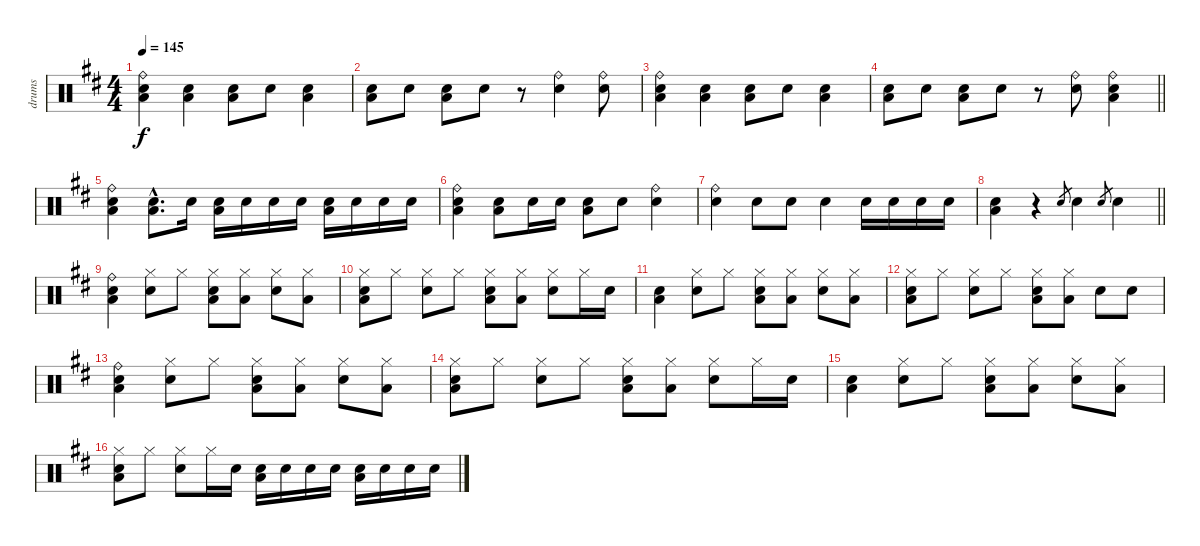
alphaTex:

\track ("drums" "drums") {instrument percussion}
\staff {score}
\articulation defaults
\ts (4 4)
\tempo 145
\clef neutral
\ks d
("Ride (bell)" "Electric Snare (hit)" "Low Floor Tom (hit)").4{dy f} ("Electric Snare (hit)" "Low Floor Tom (hit)").4 ("Electric Snare (hit)" "Low Floor Tom (hit)").8 "Electric Snare (hit)".8 ("Electric Snare (hit)" "Low Floor Tom (hit)").4 |
("Electric Snare (hit)" "Low Floor Tom (hit)").8 "Electric Snare (hit)".8 ("Electric Snare (hit)" "Low Floor Tom (hit)").8 "Electric Snare (hit)".8 r.8 ("Ride (bell)" "Electric Snare (hit)").4 ("Ride (bell)" "Electric Snare (hit)").8 |
("Ride (bell)" "Electric Snare (hit)" "Low Floor Tom (hit)").4 ("Electric Snare (hit)" "Low Floor Tom (hit)").4 ("Electric Snare (hit)" "Low Floor Tom (hit)").8 "Electric Snare (hit)".8 ("Electric Snare (hit)" "Low Floor Tom (hit)").4 |
\barLineRight lightlight
("Electric Snare (hit)" "Low Floor Tom (hit)").8 "Electric Snare (hit)".8 ("Electric Snare (hit)" "Low Floor Tom (hit)").8 "Electric Snare (hit)".8 r.8 ("Ride (bell)" "Electric Snare (hit)").8 ("Ride (bell)" "Electric Snare (hit)" "Low Floor Tom (hit)").4 |
("Ride (bell)" "Electric Snare (hit)" "Low Floor Tom (hit)").4 ("Electric Snare (hit)"{hac} "Low Floor Tom (hit)"{hac}).8{d} "Electric Snare (hit)".16 ("Electric Snare (hit)" "Low Floor Tom (hit)").16 "Electric Snare (hit)".16 "Electric Snare (hit)".16 "Electric Snare (hit)".16 ("Electric Snare (hit)" "Low Floor Tom (hit)").16 "Electric Snare (hit)".16 "Electric Snare (hit)".16 "Electric Snare (hit)".16 |
("Ride (bell)" "Electric Snare (hit)" "Low Floor Tom (hit)").4 ("Electric Snare (hit)" "Low Floor Tom (hit)").8 "Electric Snare (hit)".16 "Electric Snare (hit)".16 ("Electric Snare (hit)" "Low Floor Tom (hit)").8 "Electric Snare (hit)".8 ("Ride (bell)" "Electric Snare (hit)").4 |
("Ride (bell)" "Electric Snare (hit)").4 "Electric Snare (hit)".8 "Electric Snare (hit)".8 "Electric Snare (hit)".4 "Electric Snare (hit)".16 "Electric Snare (hit)".16 "Electric Snare (hit)".16 "Electric Snare (hit)".16 |
\barLineRight lightlight
("Electric Snare (hit)" "Low Floor Tom (hit)").4 r.4 "Electric Snare (hit)".8{gr} "Electric Snare (hit)".4 "Electric Snare (hit)".8{gr} "Electric Snare (hit)".4 |
("Ride (bell)" "Electric Snare (hit)" "Low Floor Tom (hit)").4 ("Hi-Hat (closed)" "Electric Snare (hit)").8 "Hi-Hat (closed)".8 ("Hi-Hat (closed)" "Electric Snare (hit)" "Low Floor Tom (hit)").8 ("Hi-Hat (closed)" "Low Floor Tom (hit)").8 ("Hi-Hat (closed)" "Electric Snare (hit)").8 ("Hi-Hat (closed)" "Low Floor Tom (hit)").8 |
("Hi-Hat (closed)" "Electric Snare (hit)" "Low Floor Tom (hit)").8 "Hi-Hat (closed)".8 ("Hi-Hat (closed)" "Electric Snare (hit)").8 "Hi-Hat (closed)".8 ("Hi-Hat (closed)" "Electric Snare (hit)" "Low Floor Tom (hit)").8 ("Hi-Hat (closed)" "Low Floor Tom (hit)").8 ("Hi-Hat (closed)" "Electric Snare (hit)").8 "Hi-Hat (closed)".16 "Electric Snare (hit)".16 |
("Electric Snare (hit)" "Low Floor Tom (hit)").4 ("Hi-Hat (closed)" "Electric Snare (hit)").8 "Hi-Hat (closed)".8 ("Hi-Hat (closed)" "Low Floor Tom (hit)" "Electric Snare (hit)").8 ("Hi-Hat (closed)" "Low Floor Tom (hit)").8 ("Hi-Hat (closed)" "Electric Snare (hit)").8 ("Hi-Hat (closed)" "Low Floor Tom (hit)").8 |
("Hi-Hat (closed)" "Electric Snare (hit)" "Low Floor Tom (hit)").8 "Hi-Hat (closed)".8 ("Hi-Hat (closed)" "Electric Snare (hit)").8 "Hi-Hat (closed)".8 ("Hi-Hat (closed)" "Electric Snare (hit)" "Low Floor Tom (hit)").8 ("Hi-Hat (closed)" "Low Floor Tom (hit)").8 "Electric Snare (hit)".8 "Electric Snare (hit)".8 |
("Ride (bell)" "Electric Snare (hit)" "Low Floor Tom (hit)").4 ("Hi-Hat (closed)" "Electric Snare (hit)").8 "Hi-Hat (closed)".8 ("Hi-Hat (closed)" "Electric Snare (hit)" "Low Floor Tom (hit)").8 ("Hi-Hat (closed)" "Low Floor Tom (hit)").8 ("Hi-Hat (closed)" "Electric Snare (hit)").8 ("Hi-Hat (closed)" "Low Floor Tom (hit)").8 |
("Hi-Hat (closed)" "Electric Snare (hit)" "Low Floor Tom (hit)").8 "Hi-Hat (closed)".8 ("Hi-Hat (closed)" "Electric Snare (hit)").8 "Hi-Hat (closed)".8 ("Hi-Hat (closed)" "Electric Snare (hit)" "Low Floor Tom (hit)").8 ("Hi-Hat (closed)" "Low Floor Tom (hit)").8 ("Hi-Hat (closed)" "Electric Snare (hit)").8 "Hi-Hat (closed)".16 "Electric Snare (hit)".16 |
("Electric Snare (hit)" "Low Floor Tom (hit)").4 ("Hi-Hat (closed)" "Electric Snare (hit)").8 "Hi-Hat (closed)".8 ("Hi-Hat (closed)" "Electric Snare (hit)" "Low Floor Tom (hit)").8 ("Hi-Hat (closed)" "Low Floor Tom (hit)").8 ("Hi-Hat (closed)" "Electric Snare (hit)").8 ("Hi-Hat (closed)" "Low Floor Tom (hit)").8 |
("Hi-Hat (closed)" "Electric Snare (hit)" "Low Floor Tom (hit)").8 "Hi-Hat (closed)".8 ("Hi-Hat (closed)" "Electric Snare (hit)").8 "Hi-Hat (closed)".16 "Electric Snare (hit)".16 ("Electric Snare (hit)" "Low Floor Tom (hit)").16 "Electric Snare (hit)".16 "Electric Snare (hit)".16 "Electric Snare (hit)".16 ("Electric Snare (hit)" "Low Floor Tom (hit)").16 "Electric Snare (hit)".16 "Electric Snare (hit)".16 "Electric Snare (hit)".16
